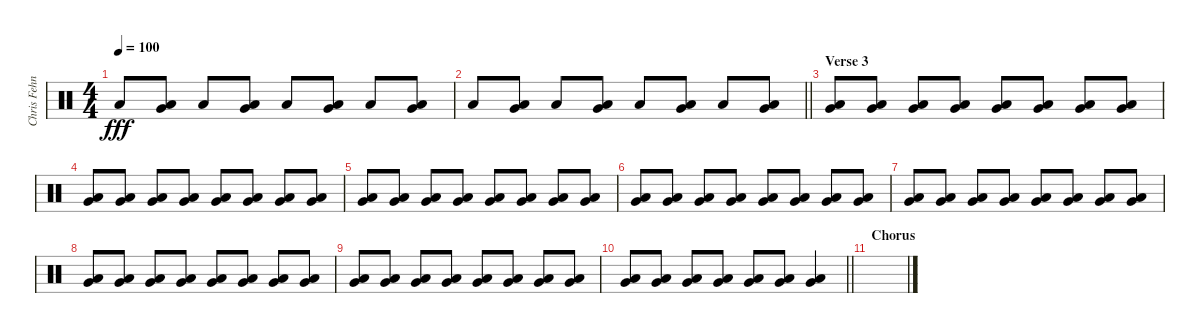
\track ("Chris Fehn" "Chris Fehn") {instrument percussion}
\staff {score}
\articulation defaults
\ts (4 4)
\tempo 100
\clef neutral
\ks c "Low Floor Tom (hit)".8{dy fff}
("Very Low Tom (hit)" "Low Floor Tom (hit)").8 "Low Floor Tom (hit)".8 ("Very Low Tom (hit)" "Low Floor Tom (hit)").8 "Low Floor Tom (hit)".8 ("Very Low Tom (hit)" "Low Floor Tom (hit)").8 "Low Floor Tom (hit)".8 ("Very Low Tom (hit)" "Low Floor Tom (hit)").8 |
\barLineRight lightlight "Low Floor Tom (hit)".8
("Very Low Tom (hit)" "Low Floor Tom (hit)").8 "Low Floor Tom (hit)".8 ("Very Low Tom (hit)" "Low Floor Tom (hit)").8 "Low Floor Tom (hit)".8 ("Very Low Tom (hit)" "Low Floor Tom (hit)").8 "Low Floor Tom (hit)".8 ("Very Low Tom (hit)" "Low Floor Tom (hit)").8 |
\section ("" "Verse 3")
("Very Low Tom (hit)" "Low Floor Tom (hit)").8 ("Very Low Tom (hit)" "Low Floor Tom (hit)").8 ("Very Low Tom (hit)" "Low Floor Tom (hit)").8 ("Very Low Tom (hit)" "Low Floor Tom (hit)").8 ("Very Low Tom (hit)" "Low Floor Tom (hit)").8 ("Very Low Tom (hit)" "Low Floor Tom (hit)").8 ("Very Low Tom (hit)" "Low Floor Tom (hit)").8 ("Very Low Tom (hit)" "Low Floor Tom (hit)").8 |
("Very Low Tom (hit)" "Low Floor Tom (hit)").8 ("Very Low Tom (hit)" "Low Floor Tom (hit)").8 ("Very Low Tom (hit)" "Low Floor Tom (hit)").8 ("Very Low Tom (hit)" "Low Floor Tom (hit)").8 ("Very Low Tom (hit)" "Low Floor Tom (hit)").8 ("Very Low Tom (hit)" "Low Floor Tom (hit)").8 ("Very Low Tom (hit)" "Low Floor Tom (hit)").8 ("Very Low Tom (hit)" "Low Floor Tom (hit)").8 |
("Very Low Tom (hit)" "Low Floor Tom (hit)").8 ("Very Low Tom (hit)" "Low Floor Tom (hit)").8 ("Very Low Tom (hit)" "Low Floor Tom (hit)").8 ("Very Low Tom (hit)" "Low Floor Tom (hit)").8 ("Very Low Tom (hit)" "Low Floor Tom (hit)").8 ("Very Low Tom (hit)" "Low Floor Tom (hit)").8 ("Very Low Tom (hit)" "Low Floor Tom (hit)").8 ("Very Low Tom (hit)" "Low Floor Tom (hit)").8 |
("Very Low Tom (hit)" "Low Floor Tom (hit)").8 ("Very Low Tom (hit)" "Low Floor Tom (hit)").8 ("Very Low Tom (hit)" "Low Floor Tom (hit)").8 ("Very Low Tom (hit)" "Low Floor Tom (hit)").8 ("Very Low Tom (hit)" "Low Floor Tom (hit)").8 ("Very Low Tom (hit)" "Low Floor Tom (hit)").8 ("Very Low Tom (hit)" "Low Floor Tom (hit)").8 ("Very Low Tom (hit)" "Low Floor Tom (hit)").8 |
("Very Low Tom (hit)" "Low Floor Tom (hit)").8 ("Very Low Tom (hit)" "Low Floor Tom (hit)").8 ("Very Low Tom (hit)" "Low Floor Tom (hit)").8 ("Very Low Tom (hit)" "Low Floor Tom (hit)").8 ("Very Low Tom (hit)" "Low Floor Tom (hit)").8 ("Very Low Tom (hit)" "Low Floor Tom (hit)").8 ("Very Low Tom (hit)" "Low Floor Tom (hit)").8 ("Very Low Tom (hit)" "Low Floor Tom (hit)").8 |
("Very Low Tom (hit)" "Low Floor Tom (hit)").8 ("Very Low Tom (hit)" "Low Floor Tom (hit)").8 ("Very Low Tom (hit)" "Low Floor Tom (hit)").8 ("Very Low Tom (hit)" "Low Floor Tom (hit)").8 ("Very Low Tom (hit)" "Low Floor Tom (hit)").8 ("Very Low Tom (hit)" "Low Floor Tom (hit)").8 ("Very Low Tom (hit)" "Low Floor Tom (hit)").8 ("Very Low Tom (hit)" "Low Floor Tom (hit)").8 |
("Very Low Tom (hit)" "Low Floor Tom (hit)").8 ("Very Low Tom (hit)" "Low Floor Tom (hit)").8 ("Very Low Tom (hit)" "Low Floor Tom (hit)").8 ("Very Low Tom (hit)" "Low Floor Tom (hit)").8 ("Very Low Tom (hit)" "Low Floor Tom (hit)").8 ("Very Low Tom (hit)" "Low Floor Tom (hit)").8 ("Very Low Tom (hit)" "Low Floor Tom (hit)").8 ("Very Low Tom (hit)" "Low Floor Tom (hit)").8 |
\barLineRight lightlight
("Very Low Tom (hit)" "Low Floor Tom (hit)").8 ("Very Low Tom (hit)" "Low Floor Tom (hit)").8 ("Very Low Tom (hit)" "Low Floor Tom (hit)").8 ("Very Low Tom (hit)" "Low Floor Tom (hit)").8 ("Very Low Tom (hit)" "Low Floor Tom (hit)").8 ("Very Low Tom (hit)" "Low Floor Tom (hit)").8 ("Very Low Tom (hit)" "Low Floor Tom (hit)").4 |
\section ("" "Chorus")
